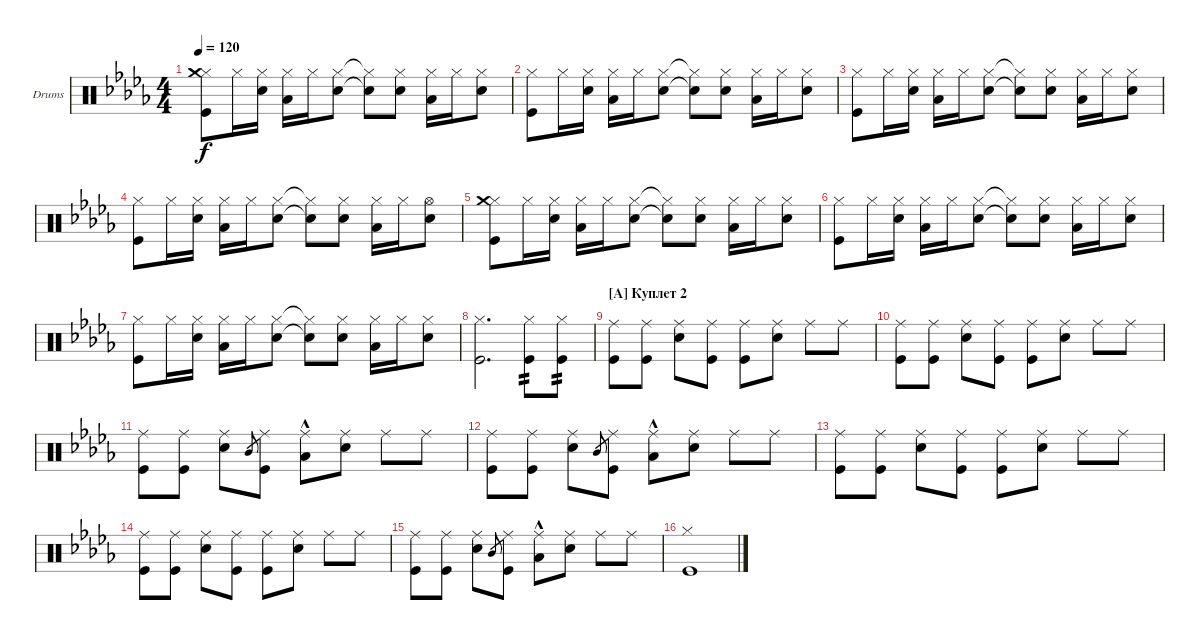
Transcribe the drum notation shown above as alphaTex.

\defaultSystemsLayout 4
\bracketExtendMode groupsimilarinstruments
\firstSystemTrackNameOrientation horizontal
\otherSystemsTrackNameOrientation horizontal
\track ("Ударные" "Drums") {instrument percussion}
\staff {score}
\articulation defaults
\ts (4 4)
\tempo 120
\clef neutral
\ks db
("Kick (hit)" "Hi-Hat (closed)" "Crash medium (hit)").8{dy f} "Hi-Hat (closed)".16 ("Hi-Hat (closed)" "Snare (hit) 2").16 ("Hi-Hat (closed)" "Low Tom (hit)").16 "Hi-Hat (closed)".16 ("Hi-Hat (closed)" "Snare (hit) 2").8 ("Hi-Hat (closed)"{t} "Snare (hit) 2"{t}).8 ("Hi-Hat (closed)" "Snare (hit) 2").8 ("Hi-Hat (closed)" "Low Tom (hit)").16 "Hi-Hat (closed)".16 ("Hi-Hat (closed)" "Snare (hit) 2").8 |
("Kick (hit)" "Hi-Hat (closed)").8 "Hi-Hat (closed)".16 ("Hi-Hat (closed)" "Snare (hit) 2").16 ("Hi-Hat (closed)" "Low Tom (hit)").16 "Hi-Hat (closed)".16 ("Hi-Hat (closed)" "Snare (hit) 2").8 ("Hi-Hat (closed)"{t} "Snare (hit) 2"{t}).8 ("Hi-Hat (closed)" "Snare (hit) 2").8 ("Hi-Hat (closed)" "Low Tom (hit)").16 "Hi-Hat (closed)".16 ("Hi-Hat (closed)" "Snare (hit) 2").8 |
("Kick (hit)" "Hi-Hat (closed)").8 "Hi-Hat (closed)".16 ("Hi-Hat (closed)" "Snare (hit) 2").16 ("Hi-Hat (closed)" "Low Tom (hit)").16 "Hi-Hat (closed)".16 ("Hi-Hat (closed)" "Snare (hit) 2").8 ("Hi-Hat (closed)"{t} "Snare (hit) 2"{t}).8 ("Hi-Hat (closed)" "Snare (hit) 2").8 ("Hi-Hat (closed)" "Low Tom (hit)").16 "Hi-Hat (closed)".16 ("Hi-Hat (closed)" "Snare (hit) 2").8 |
("Kick (hit)" "Hi-Hat (closed)").8 "Hi-Hat (closed)".16 ("Hi-Hat (closed)" "Snare (hit) 2").16 ("Hi-Hat (closed)" "Low Tom (hit)").16 "Hi-Hat (closed)".16 ("Hi-Hat (closed)" "Snare (hit) 2").8 ("Hi-Hat (closed)"{t} "Snare (hit) 2"{t}).8 ("Hi-Hat (closed)" "Snare (hit) 2").8 ("Hi-Hat (closed)" "Low Tom (hit)").16 "Hi-Hat (closed)".16 ("Hi-Hat (open)" "Snare (hit) 2").8 |
("Kick (hit)" "Hi-Hat (closed)" "Crash medium (hit)").8 "Hi-Hat (closed)".16 ("Hi-Hat (closed)" "Snare (hit) 2").16 ("Hi-Hat (closed)" "Low Tom (hit)").16 "Hi-Hat (closed)".16 ("Hi-Hat (closed)" "Snare (hit) 2").8 ("Hi-Hat (closed)"{t} "Snare (hit) 2"{t}).8 ("Hi-Hat (closed)" "Snare (hit) 2").8 ("Hi-Hat (closed)" "Low Tom (hit)").16 "Hi-Hat (closed)".16 ("Hi-Hat (closed)" "Snare (hit) 2").8 |
("Kick (hit)" "Hi-Hat (closed)").8 "Hi-Hat (closed)".16 ("Hi-Hat (closed)" "Snare (hit) 2").16 ("Hi-Hat (closed)" "Low Tom (hit)").16 "Hi-Hat (closed)".16 ("Hi-Hat (closed)" "Snare (hit) 2").8 ("Hi-Hat (closed)"{t} "Snare (hit) 2"{t}).8 ("Hi-Hat (closed)" "Snare (hit) 2").8 ("Hi-Hat (closed)" "Low Tom (hit)").16 "Hi-Hat (closed)".16 ("Hi-Hat (closed)" "Snare (hit) 2").8 |
("Kick (hit)" "Hi-Hat (closed)").8 "Hi-Hat (closed)".16 ("Hi-Hat (closed)" "Snare (hit) 2").16 ("Hi-Hat (closed)" "Low Tom (hit)").16 "Hi-Hat (closed)".16 ("Hi-Hat (closed)" "Snare (hit) 2").8 ("Hi-Hat (closed)"{t} "Snare (hit) 2"{t}).8 ("Hi-Hat (closed)" "Snare (hit) 2").8 ("Hi-Hat (closed)" "Low Tom (hit)").16 "Hi-Hat (closed)".16 ("Hi-Hat (closed)" "Snare (hit) 2").8 |
\scale
1.10214 ("Kick (hit)" "Hi-Hat (closed)").2{d} ("Hi-Hat (closed)" "Kick (hit)").8{tp 2} ("Hi-Hat (closed)" "Kick (hit)").8{tp 2} |
\section ("A" "Куплет 2")
("Kick (hit)" "Ride (middle)").8 ("Kick (hit)" "Ride (middle)").8 ("Snare (hit) 2" "Ride (middle)").8 ("Kick (hit)" "Ride (middle)").8 ("Kick (hit)" "Ride (middle)").8 ("Snare (hit) 2" "Ride (middle)").8 "Ride (middle)".8 "Ride (middle)".8 |
("Kick (hit)" "Ride (middle)").8 ("Kick (hit)" "Ride (middle)").8 ("Snare (hit) 2" "Ride (middle)").8 ("Kick (hit)" "Ride (middle)").8 ("Kick (hit)" "Ride (middle)").8 ("Snare (hit) 2" "Ride (middle)").8 "Ride (middle)".8 "Ride (middle)".8 |
("Kick (hit)" "Ride (middle)").8 ("Kick (hit)" "Ride (middle)").8 ("Snare (hit) 2" "Ride (middle)").8 "Mid Tom (hit)".8{gr} ("Kick (hit)" "Ride (middle)").8 ("Ride (middle)" "Low Tom (hit)"{hac}).8 ("Snare (hit) 2" "Ride (middle)").8 "Ride (middle)".8 "Ride (middle)".8 |
("Kick (hit)" "Ride (middle)").8 ("Kick (hit)" "Ride (middle)").8 ("Snare (hit) 2" "Ride (middle)").8 "Mid Tom (hit)".8{gr} ("Kick (hit)" "Ride (middle)").8 ("Ride (middle)" "Low Tom (hit)"{hac}).8 ("Snare (hit) 2" "Ride (middle)").8 "Ride (middle)".8 "Ride (middle)".8 |
("Kick (hit)" "Ride (middle)").8 ("Kick (hit)" "Ride (middle)").8 ("Snare (hit) 2" "Ride (middle)").8 ("Kick (hit)" "Ride (middle)").8 ("Kick (hit)" "Ride (middle)").8 ("Snare (hit) 2" "Ride (middle)").8 "Ride (middle)".8 "Ride (middle)".8 |
("Kick (hit)" "Ride (middle)").8 ("Kick (hit)" "Ride (middle)").8 ("Snare (hit) 2" "Ride (middle)").8 ("Kick (hit)" "Ride (middle)").8 ("Kick (hit)" "Ride (middle)").8 ("Snare (hit) 2" "Ride (middle)").8 "Ride (middle)".8 "Ride (middle)".8 |
("Kick (hit)" "Ride (middle)").8 ("Kick (hit)" "Ride (middle)").8 ("Snare (hit) 2" "Ride (middle)").8 "Mid Tom (hit)".8{gr} ("Kick (hit)" "Ride (middle)").8 ("Ride (middle)" "Low Tom (hit)"{hac}).8 ("Snare (hit) 2" "Ride (middle)").8 "Ride (middle)".8 "Ride (middle)".8 |
("Kick (hit)" "Hi-Hat (closed)").1
